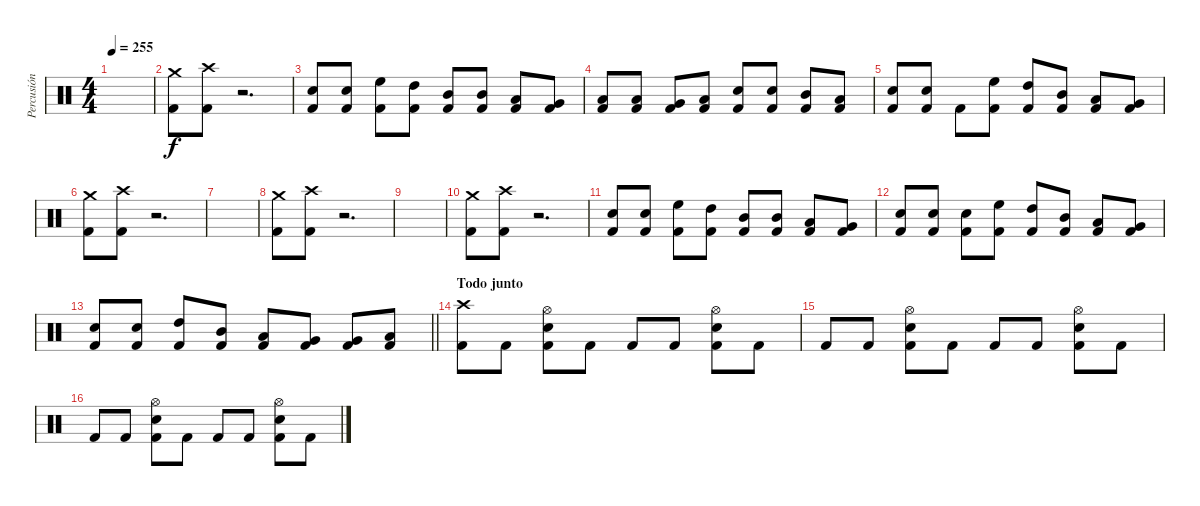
\track ("Percusión" "Percusión") {instrument percussion}
\staff {score}
\articulation defaults
\ts (4 4)
\tempo 255
\clef neutral
\ks c
|
("Kick (hit) 2" "Crash medium (hit)").8 ("Kick (hit) 2" "Crash high (hit)").8 r.2{d} |
("Kick (hit) 2" "Electric Snare (hit)").8 ("Kick (hit) 2" "Electric Snare (hit)").8 ("Kick (hit) 2" "High Floor Tom (hit)").8 ("Kick (hit) 2" "High Tom (hit)").8 ("Kick (hit) 2" "Mid Tom (hit)").8 ("Kick (hit) 2" "Mid Tom (hit)").8 ("Kick (hit) 2" "Low Tom (hit)").8 ("Kick (hit) 2" "Very Low Tom (hit)").8 |
("Kick (hit) 2" "Low Tom (hit)").8 ("Kick (hit) 2" "Low Tom (hit)").8 ("Kick (hit) 2" "Very Low Tom (hit)").8 ("Kick (hit) 2" "Low Floor Tom (hit)").8 ("Kick (hit) 2" "Electric Snare (hit)").8 ("Kick (hit) 2" "Electric Snare (hit)").8 ("Kick (hit) 2" "Mid Tom (hit)").8 ("Kick (hit) 2" "Low Tom (hit)").8 |
("Kick (hit) 2" "Electric Snare (hit)").8 ("Kick (hit) 2" "Electric Snare (hit)").8 "Kick (hit) 2".8 ("Kick (hit) 2" "High Floor Tom (hit)").8 ("Kick (hit) 2" "High Tom (hit)").8 ("Kick (hit) 2" "Mid Tom (hit)").8 ("Kick (hit) 2" "Low Tom (hit)").8 ("Kick (hit) 2" "Very Low Tom (hit)").8 |
("Kick (hit) 2" "Crash medium (hit)").8 ("Kick (hit) 2" "Crash high (hit)").8 r.2{d} |
|
("Kick (hit) 2" "Crash medium (hit)").8 ("Kick (hit) 2" "Crash high (hit)").8 r.2{d} |
|
("Kick (hit) 2" "Crash medium (hit)").8 ("Kick (hit) 2" "Crash high (hit)").8 r.2{d} |
("Kick (hit) 2" "Electric Snare (hit)").8 ("Kick (hit) 2" "Electric Snare (hit)").8 ("Kick (hit) 2" "High Floor Tom (hit)").8 ("Kick (hit) 2" "High Tom (hit)").8 ("Kick (hit) 2" "Mid Tom (hit)").8 ("Kick (hit) 2" "Mid Tom (hit)").8 ("Kick (hit) 2" "Low Tom (hit)").8 ("Kick (hit) 2" "Very Low Tom (hit)").8 |
("Kick (hit) 2" "Electric Snare (hit)").8 ("Kick (hit) 2" "Electric Snare (hit)").8 ("Kick (hit) 2" "Electric Snare (hit)").8 ("Kick (hit) 2" "High Floor Tom (hit)").8 ("Kick (hit) 2" "High Tom (hit)").8 ("Kick (hit) 2" "Mid Tom (hit)").8 ("Kick (hit) 2" "Low Tom (hit)").8 ("Kick (hit) 2" "Very Low Tom (hit)").8 |
\barLineRight lightlight
("Kick (hit) 2" "Electric Snare (hit)").8 ("Kick (hit) 2" "Electric Snare (hit)").8 ("Kick (hit) 2" "High Tom (hit)").8 ("Kick (hit) 2" "Mid Tom (hit)").8 ("Kick (hit) 2" "Low Tom (hit)").8 ("Kick (hit) 2" "Very Low Tom (hit)").8 ("Kick (hit) 2" "Very Low Tom (hit)").8 ("Kick (hit) 2" "Low Floor Tom (hit)").8 |
\section ("" "Todo junto")
("Kick (hit) 2" "Crash high (hit)").8 "Kick (hit) 2".8 ("Kick (hit) 2" "Electric Snare (hit)" "Hi-Hat (open)").8 "Kick (hit) 2".8 "Kick (hit) 2".8 "Kick (hit) 2".8 ("Kick (hit) 2" "Electric Snare (hit)" "Hi-Hat (open)").8 "Kick (hit) 2".8 |
"Kick (hit) 2".8 "Kick (hit) 2".8 ("Kick (hit) 2" "Electric Snare (hit)" "Hi-Hat (open)").8 "Kick (hit) 2".8 "Kick (hit) 2".8 "Kick (hit) 2".8 ("Kick (hit) 2" "Electric Snare (hit)" "Hi-Hat (open)").8 "Kick (hit) 2".8 |
"Kick (hit) 2".8 "Kick (hit) 2".8 ("Kick (hit) 2" "Electric Snare (hit)" "Hi-Hat (open)").8 "Kick (hit) 2".8 "Kick (hit) 2".8 "Kick (hit) 2".8 ("Kick (hit) 2" "Electric Snare (hit)" "Hi-Hat (open)").8 "Kick (hit) 2".8
